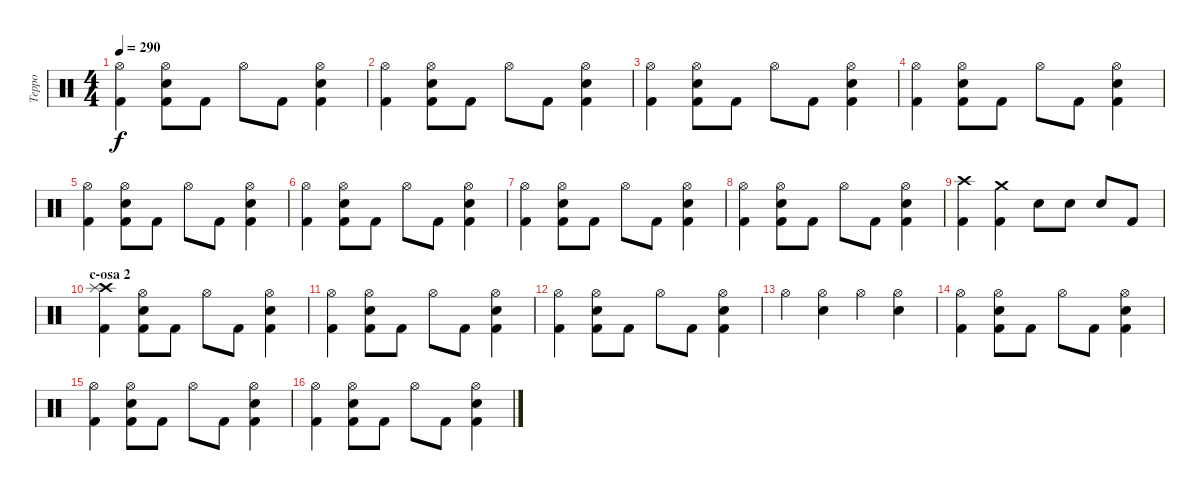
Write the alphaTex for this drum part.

\track ("Teppo" "Teppo") {instrument percussion}
\staff {score}
\articulation defaults
\ts (4 4)
\tempo 290
\clef neutral
\ks c
("Hi-Hat (open)" "Kick (hit) 2").4{dy f} ("Hi-Hat (open)" "Electric Snare (hit)" "Kick (hit) 2").8 "Kick (hit) 2".8 "Hi-Hat (open)".8 "Kick (hit) 2".8 ("Hi-Hat (open)" "Electric Snare (hit)" "Kick (hit) 2").4 |
("Hi-Hat (open)" "Kick (hit) 2").4 ("Hi-Hat (open)" "Electric Snare (hit)" "Kick (hit) 2").8 "Kick (hit) 2".8 "Hi-Hat (open)".8 "Kick (hit) 2".8 ("Hi-Hat (open)" "Electric Snare (hit)" "Kick (hit) 2").4 |
("Hi-Hat (open)" "Kick (hit) 2").4 ("Hi-Hat (open)" "Electric Snare (hit)" "Kick (hit) 2").8 "Kick (hit) 2".8 "Hi-Hat (open)".8 "Kick (hit) 2".8 ("Hi-Hat (open)" "Electric Snare (hit)" "Kick (hit) 2").4 |
("Hi-Hat (open)" "Kick (hit) 2").4 ("Hi-Hat (open)" "Electric Snare (hit)" "Kick (hit) 2").8 "Kick (hit) 2".8 "Hi-Hat (open)".8 "Kick (hit) 2".8 ("Hi-Hat (open)" "Electric Snare (hit)" "Kick (hit) 2").4 |
("Hi-Hat (open)" "Kick (hit) 2").4 ("Hi-Hat (open)" "Electric Snare (hit)" "Kick (hit) 2").8 "Kick (hit) 2".8 "Hi-Hat (open)".8 "Kick (hit) 2".8 ("Hi-Hat (open)" "Electric Snare (hit)" "Kick (hit) 2").4 |
("Hi-Hat (open)" "Kick (hit) 2").4 ("Hi-Hat (open)" "Electric Snare (hit)" "Kick (hit) 2").8 "Kick (hit) 2".8 "Hi-Hat (open)".8 "Kick (hit) 2".8 ("Hi-Hat (open)" "Electric Snare (hit)" "Kick (hit) 2").4 |
("Hi-Hat (open)" "Kick (hit) 2").4 ("Hi-Hat (open)" "Electric Snare (hit)" "Kick (hit) 2").8 "Kick (hit) 2".8 "Hi-Hat (open)".8 "Kick (hit) 2".8 ("Hi-Hat (open)" "Electric Snare (hit)" "Kick (hit) 2").4 |
("Hi-Hat (open)" "Kick (hit) 2").4 ("Hi-Hat (open)" "Electric Snare (hit)" "Kick (hit) 2").8 "Kick (hit) 2".8 "Hi-Hat (open)".8 "Kick (hit) 2".8 ("Hi-Hat (open)" "Electric Snare (hit)" "Kick (hit) 2").4 |
("Crash high (hit)" "Kick (hit) 2").4 ("Crash medium (hit)" "Kick (hit) 2").4 "Electric Snare (hit)".8 "Electric Snare (hit)".8 "Electric Snare (hit)".8 "Kick (hit) 2".8 |
\section ("" "c-osa 2")
("Crash high (hit)" "Splash (hit)" "Kick (hit) 2").4 ("Hi-Hat (open)" "Electric Snare (hit)" "Kick (hit) 2").8 "Kick (hit) 2".8 "Hi-Hat (open)".8 "Kick (hit) 2".8 ("Hi-Hat (open)" "Electric Snare (hit)" "Kick (hit) 2").4 |
("Hi-Hat (open)" "Kick (hit) 2").4 ("Hi-Hat (open)" "Electric Snare (hit)" "Kick (hit) 2").8 "Kick (hit) 2".8 "Hi-Hat (open)".8 "Kick (hit) 2".8 ("Hi-Hat (open)" "Electric Snare (hit)" "Kick (hit) 2").4 |
("Hi-Hat (open)" "Kick (hit) 2").4 ("Hi-Hat (open)" "Electric Snare (hit)" "Kick (hit) 2").8 "Kick (hit) 2".8 "Hi-Hat (open)".8 "Kick (hit) 2".8 ("Hi-Hat (open)" "Electric Snare (hit)" "Kick (hit) 2").4 |
"Hi-Hat (open)".4 ("Hi-Hat (open)" "Electric Snare (hit)").4 "Hi-Hat (open)".4 ("Hi-Hat (open)" "Electric Snare (hit)").4 |
("Hi-Hat (open)" "Kick (hit) 2").4 ("Hi-Hat (open)" "Electric Snare (hit)" "Kick (hit) 2").8 "Kick (hit) 2".8 "Hi-Hat (open)".8 "Kick (hit) 2".8 ("Hi-Hat (open)" "Electric Snare (hit)" "Kick (hit) 2").4 |
("Hi-Hat (open)" "Kick (hit) 2").4 ("Hi-Hat (open)" "Electric Snare (hit)" "Kick (hit) 2").8 "Kick (hit) 2".8 "Hi-Hat (open)".8 "Kick (hit) 2".8 ("Hi-Hat (open)" "Electric Snare (hit)" "Kick (hit) 2").4 |
("Hi-Hat (open)" "Kick (hit) 2").4 ("Hi-Hat (open)" "Electric Snare (hit)" "Kick (hit) 2").8 "Kick (hit) 2".8 "Hi-Hat (open)".8 "Kick (hit) 2".8 ("Hi-Hat (open)" "Electric Snare (hit)" "Kick (hit) 2").4
